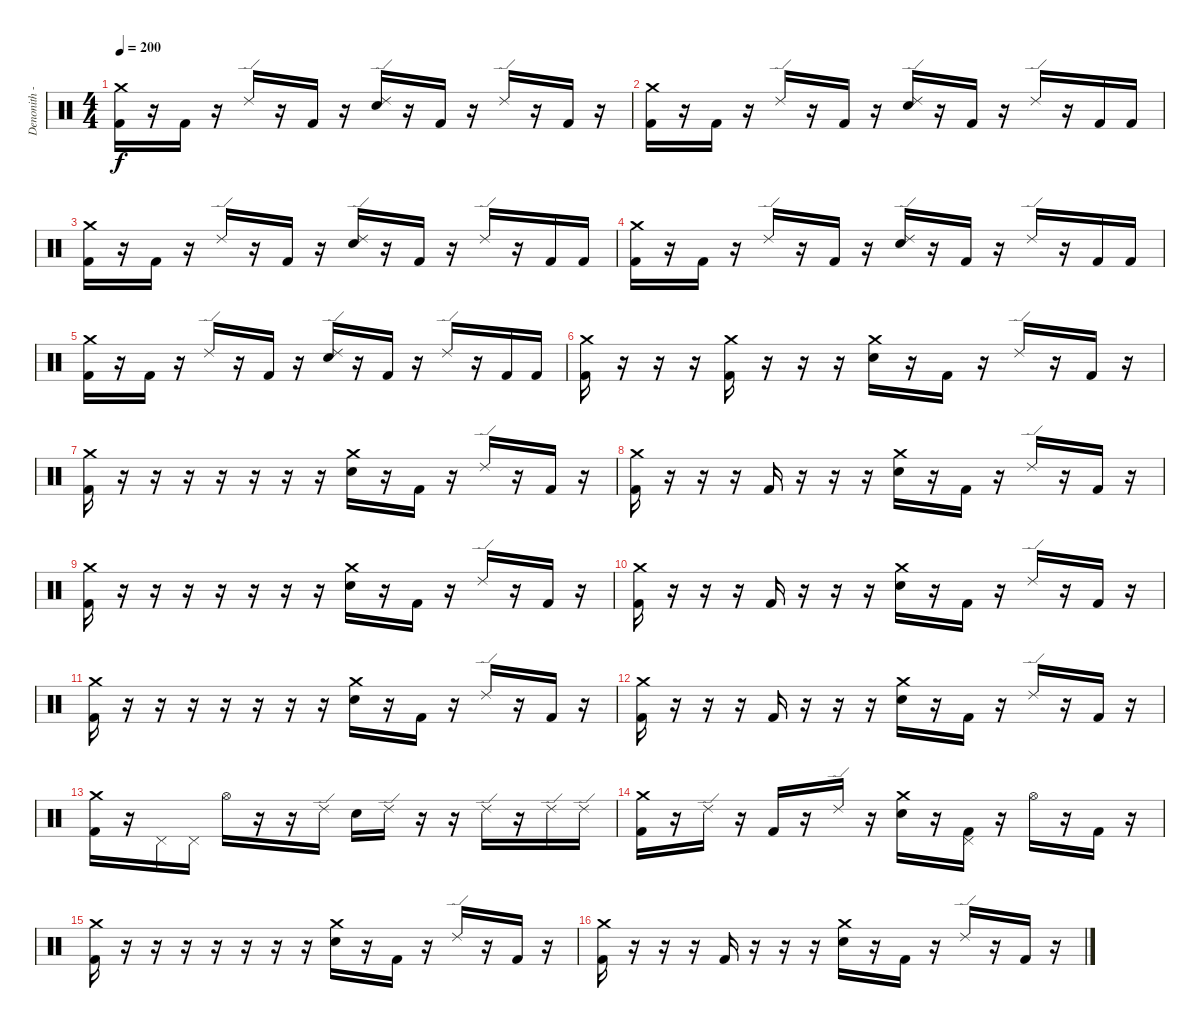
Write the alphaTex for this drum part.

\track ("Denonith - Spyros" "Denonith -") {instrument percussion}
\staff {score}
\articulation defaults
\ts (4 4)
\tempo 200
\clef neutral
\ks c
("Crash medium (hit)" "Kick (hit) 2").16{dy f} r.16 "Kick (hit) 2".16 r.16 "Ride (edge) 2".16 r.16 "Kick (hit) 2".16 r.16 ("Ride (edge) 2" "Electric Snare (hit)").16 r.16 "Kick (hit) 2".16 r.16 "Ride (edge) 2".16 r.16 "Kick (hit) 2".16 r.16 |
("Crash medium (hit)" "Kick (hit) 2").16 r.16 "Kick (hit) 2".16 r.16 "Ride (edge) 2".16 r.16 "Kick (hit) 2".16 r.16 ("Ride (edge) 2" "Electric Snare (hit)").16 r.16 "Kick (hit) 2".16 r.16 "Ride (edge) 2".16 r.16 "Kick (hit) 2".16 "Kick (hit) 2".16 |
("Crash medium (hit)" "Kick (hit) 2").16 r.16 "Kick (hit) 2".16 r.16 "Ride (edge) 2".16 r.16 "Kick (hit) 2".16 r.16 ("Ride (edge) 2" "Electric Snare (hit)").16 r.16 "Kick (hit) 2".16 r.16 "Ride (edge) 2".16 r.16 "Kick (hit) 2".16 "Kick (hit) 2".16 |
("Crash medium (hit)" "Kick (hit) 2").16 r.16 "Kick (hit) 2".16 r.16 "Ride (edge) 2".16 r.16 "Kick (hit) 2".16 r.16 ("Ride (edge) 2" "Electric Snare (hit)").16 r.16 "Kick (hit) 2".16 r.16 "Ride (edge) 2".16 r.16 "Kick (hit) 2".16 "Kick (hit) 2".16 |
("Crash medium (hit)" "Kick (hit) 2").16 r.16 "Kick (hit) 2".16 r.16 "Ride (edge) 2".16 r.16 "Kick (hit) 2".16 r.16 ("Ride (edge) 2" "Electric Snare (hit)").16 r.16 "Kick (hit) 2".16 r.16 "Ride (edge) 2".16 r.16 "Kick (hit) 2".16 "Kick (hit) 2".16 |
("Crash medium (hit)" "Kick (hit) 2").16 r.16 r.16 r.16 ("Crash medium (hit)" "Kick (hit) 2").16 r.16 r.16 r.16 ("Crash medium (hit)" "Electric Snare (hit)").16 r.16 "Kick (hit) 2".16 r.16 "Ride (edge) 2".16 r.16 "Kick (hit) 2".16 r.16 |
("Crash medium (hit)" "Kick (hit) 2").16 r.16 r.16 r.16 r.16 r.16 r.16 r.16 ("Crash medium (hit)" "Electric Snare (hit)").16 r.16 "Kick (hit) 2".16 r.16 "Ride (edge) 2".16 r.16 "Kick (hit) 2".16 r.16 |
("Crash medium (hit)" "Kick (hit) 2").16 r.16 r.16 r.16 "Kick (hit) 2".16 r.16 r.16 r.16 ("Crash medium (hit)" "Electric Snare (hit)").16 r.16 "Kick (hit) 2".16 r.16 "Ride (edge) 2".16 r.16 "Kick (hit) 2".16 r.16 |
("Crash medium (hit)" "Kick (hit) 2").16 r.16 r.16 r.16 r.16 r.16 r.16 r.16 ("Crash medium (hit)" "Electric Snare (hit)").16 r.16 "Kick (hit) 2".16 r.16 "Ride (edge) 2".16 r.16 "Kick (hit) 2".16 r.16 |
("Crash medium (hit)" "Kick (hit) 2").16 r.16 r.16 r.16 "Kick (hit) 2".16 r.16 r.16 r.16 ("Crash medium (hit)" "Electric Snare (hit)").16 r.16 "Kick (hit) 2".16 r.16 "Ride (edge) 2".16 r.16 "Kick (hit) 2".16 r.16 |
("Crash medium (hit)" "Kick (hit) 2").16 r.16 r.16 r.16 r.16 r.16 r.16 r.16 ("Crash medium (hit)" "Electric Snare (hit)").16 r.16 "Kick (hit) 2".16 r.16 "Ride (edge) 2".16 r.16 "Kick (hit) 2".16 r.16 |
("Crash medium (hit)" "Kick (hit) 2").16 r.16 r.16 r.16 "Kick (hit) 2".16 r.16 r.16 r.16 ("Crash medium (hit)" "Electric Snare (hit)").16 r.16 "Kick (hit) 2".16 r.16 "Ride (edge) 2".16 r.16 "Kick (hit) 2".16 r.16 |
("Crash medium (hit)" "Kick (hit) 2").16 r.16 "Pedal Hi-Hat (hit)".16 "Pedal Hi-Hat (hit)".16 "Hi-Hat (open)".16 r.16 r.16 "Ride (edge) 2".16 "Electric Snare (hit)".16 "Ride (edge) 2".16 r.16 r.16 "Ride (edge) 2".16 r.16 "Ride (edge) 2".16 "Ride (edge) 2".16 |
("Crash medium (hit)" "Kick (hit) 2").16 r.16 "Ride (edge) 2".16 r.16 "Kick (hit) 2".16 r.16 "Ride (edge) 2".16 r.16 ("Crash medium (hit)" "Electric Snare (hit)").16 r.16 ("Pedal Hi-Hat (hit)" "Kick (hit) 2").16 r.16 "Hi-Hat (open)".16 r.16 "Kick (hit) 2".16 r.16 |
("Crash medium (hit)" "Kick (hit) 2").16 r.16 r.16 r.16 r.16 r.16 r.16 r.16 ("Crash medium (hit)" "Electric Snare (hit)").16 r.16 "Kick (hit) 2".16 r.16 "Ride (edge) 2".16 r.16 "Kick (hit) 2".16 r.16 |
("Crash medium (hit)" "Kick (hit) 2").16 r.16 r.16 r.16 "Kick (hit) 2".16 r.16 r.16 r.16 ("Crash medium (hit)" "Electric Snare (hit)").16 r.16 "Kick (hit) 2".16 r.16 "Ride (edge) 2".16 r.16 "Kick (hit) 2".16 r.16
